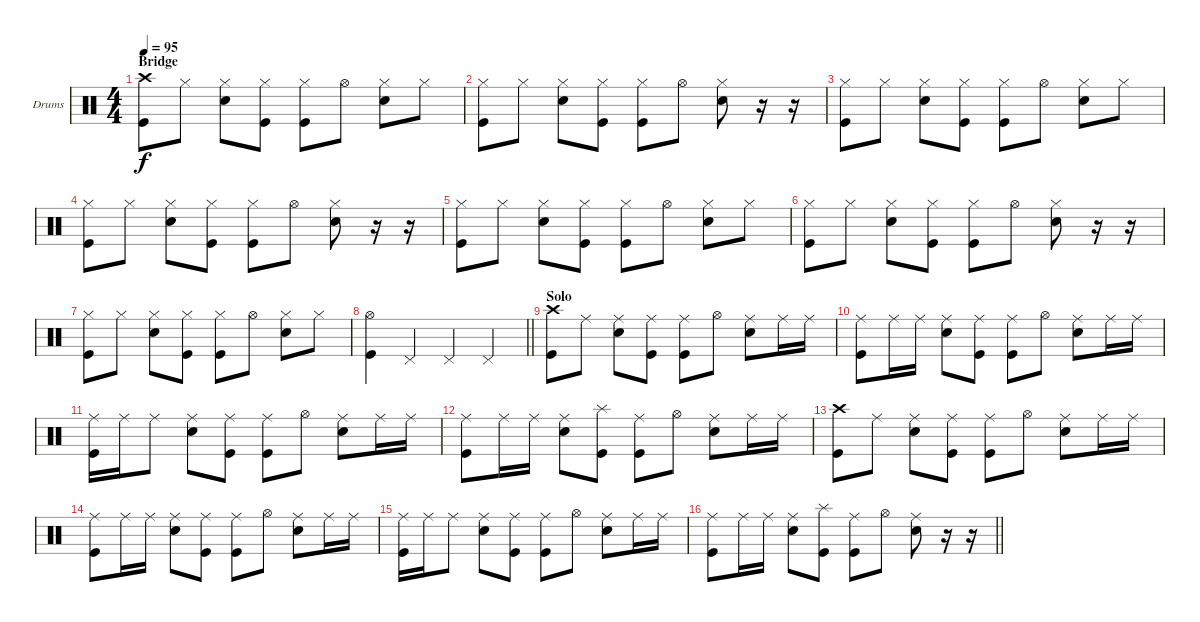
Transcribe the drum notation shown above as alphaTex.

\bracketExtendMode groupsimilarinstruments
\firstSystemTrackNameOrientation horizontal
\otherSystemsTrackNameOrientation horizontal
\track ("Drumkit" "Drums") {instrument percussion}
\staff {score}
\articulation defaults
\ts (4 4)
\section ("" "Bridge")
\tempo 95
\clef neutral
\ks c
("Crash high (hit)" "Kick (hit)").8{dy f} "Hi-Hat (closed)".8 ("Hi-Hat (closed)" "Snare (hit) 2").8 ("Hi-Hat (closed)" "Kick (hit)").8 ("Hi-Hat (closed)" "Kick (hit)").8 "Hi-Hat (open)".8 ("Hi-Hat (closed)" "Snare (hit) 2").8 "Hi-Hat (closed)".8 |
("Hi-Hat (closed)" "Kick (hit)").8 "Hi-Hat (closed)".8 ("Hi-Hat (closed)" "Snare (hit) 2").8 ("Hi-Hat (closed)" "Kick (hit)").8 ("Hi-Hat (closed)" "Kick (hit)").8 "Hi-Hat (open)".8 ("Hi-Hat (closed)" "Snare (hit) 2").8 r.16 r.16 |
("Hi-Hat (closed)" "Kick (hit)").8 "Hi-Hat (closed)".8 ("Hi-Hat (closed)" "Snare (hit) 2").8 ("Hi-Hat (closed)" "Kick (hit)").8 ("Hi-Hat (closed)" "Kick (hit)").8 "Hi-Hat (open)".8 ("Hi-Hat (closed)" "Snare (hit) 2").8 "Hi-Hat (closed)".8 |
("Hi-Hat (closed)" "Kick (hit)").8 "Hi-Hat (closed)".8 ("Hi-Hat (closed)" "Snare (hit) 2").8 ("Hi-Hat (closed)" "Kick (hit)").8 ("Hi-Hat (closed)" "Kick (hit)").8 "Hi-Hat (open)".8 ("Hi-Hat (closed)" "Snare (hit) 2").8 r.16 r.16 |
("Hi-Hat (closed)" "Kick (hit)").8 "Hi-Hat (closed)".8 ("Hi-Hat (closed)" "Snare (hit) 2").8 ("Hi-Hat (closed)" "Kick (hit)").8 ("Hi-Hat (closed)" "Kick (hit)").8 "Hi-Hat (open)".8 ("Hi-Hat (closed)" "Snare (hit) 2").8 "Hi-Hat (closed)".8 |
("Hi-Hat (closed)" "Kick (hit)").8 "Hi-Hat (closed)".8 ("Hi-Hat (closed)" "Snare (hit) 2").8 ("Hi-Hat (closed)" "Kick (hit)").8 ("Hi-Hat (closed)" "Kick (hit)").8 "Hi-Hat (open)".8 ("Hi-Hat (closed)" "Snare (hit) 2").8 r.16 r.16 |
("Hi-Hat (closed)" "Kick (hit)").8 "Hi-Hat (closed)".8 ("Hi-Hat (closed)" "Snare (hit) 2").8 ("Hi-Hat (closed)" "Kick (hit)").8 ("Hi-Hat (closed)" "Kick (hit)").8 "Hi-Hat (open)".8 ("Hi-Hat (closed)" "Snare (hit) 2").8 "Hi-Hat (closed)".8 |
\barLineRight lightlight
("Hi-Hat (open)" "Kick (hit)").4 "Pedal Hi-Hat (hit)".4 "Pedal Hi-Hat (hit)".4 "Pedal Hi-Hat (hit)".4 |
\section ("" "Solo")
("Crash high (hit)" "Kick (hit)").8 "Ride (middle)".8 ("Ride (middle)" "Snare (hit) 2").8 ("Ride (middle)" "Kick (hit)").8 ("Ride (middle)" "Kick (hit)").8 "Hi-Hat (open)".8 ("Ride (middle)" "Snare (hit) 2").8 "Ride (middle)".16 "Ride (middle)".16 |
("Ride (middle)" "Kick (hit)").8 "Ride (middle)".16 "Ride (middle)".16 ("Ride (middle)" "Snare (hit) 2").8 ("Ride (middle)" "Kick (hit)").8 ("Ride (middle)" "Kick (hit)").8 "Hi-Hat (open)".8 ("Ride (middle)" "Snare (hit) 2").8 "Ride (middle)".16 "Ride (middle)".16 |
("Ride (middle)" "Kick (hit)").16 "Ride (middle)".16 "Ride (middle)".8 ("Ride (middle)" "Snare (hit) 2").8 ("Ride (middle)" "Kick (hit)").8 ("Ride (middle)" "Kick (hit)").8 "Hi-Hat (open)".8 ("Ride (middle)" "Snare (hit) 2").8 "Ride (middle)".16 "Ride (middle)".16 |
("Ride (middle)" "Kick (hit)").8 "Ride (middle)".16 "Ride (middle)".16 ("Ride (middle)" "Snare (hit) 2").8 ("Splash (hit)" "Kick (hit)").8 ("Ride (middle)" "Kick (hit)").8 "Hi-Hat (open)".8 ("Ride (middle)" "Snare (hit) 2").8 "Ride (middle)".16 "Ride (middle)".16 |
("Crash high (hit)" "Kick (hit)").8 "Ride (middle)".8 ("Ride (middle)" "Snare (hit) 2").8 ("Ride (middle)" "Kick (hit)").8 ("Ride (middle)" "Kick (hit)").8 "Hi-Hat (open)".8 ("Ride (middle)" "Snare (hit) 2").8 "Ride (middle)".16 "Ride (middle)".16 |
("Ride (middle)" "Kick (hit)").8 "Ride (middle)".16 "Ride (middle)".16 ("Ride (middle)" "Snare (hit) 2").8 ("Ride (middle)" "Kick (hit)").8 ("Ride (middle)" "Kick (hit)").8 "Hi-Hat (open)".8 ("Ride (middle)" "Snare (hit) 2").8 "Ride (middle)".16 "Ride (middle)".16 |
("Ride (middle)" "Kick (hit)").16 "Ride (middle)".16 "Ride (middle)".8 ("Ride (middle)" "Snare (hit) 2").8 ("Ride (middle)" "Kick (hit)").8 ("Ride (middle)" "Kick (hit)").8 "Hi-Hat (open)".8 ("Ride (middle)" "Snare (hit) 2").8 "Ride (middle)".16 "Ride (middle)".16 |
\barLineRight lightlight
("Ride (middle)" "Kick (hit)").8 "Ride (middle)".16 "Ride (middle)".16 ("Ride (middle)" "Snare (hit) 2").8 ("Splash (hit)" "Kick (hit)").8 ("Ride (middle)" "Kick (hit)").8 "Hi-Hat (open)".8 ("Ride (middle)" "Snare (hit) 2").8 r.16 r.16
